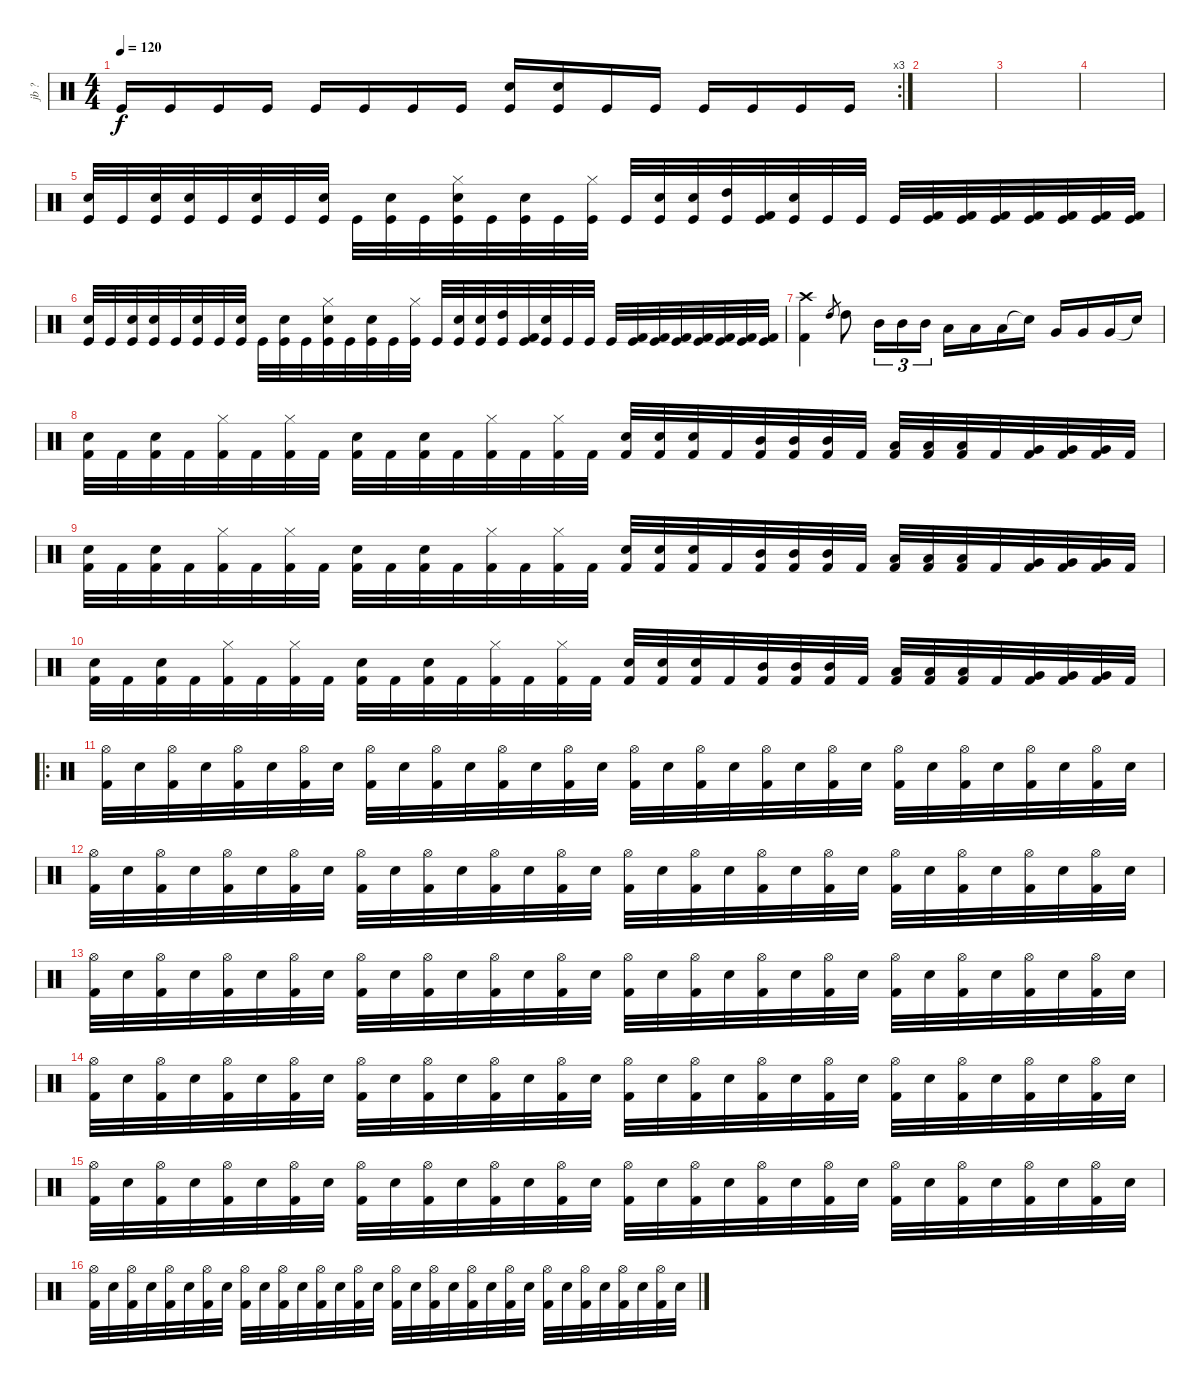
\track ("jb ?" "jb ?") {instrument percussion}
\staff {score}
\articulation defaults
\rc 3
\ts (4 4)
\tempo 120
\clef neutral
\ks c "Kick (hit)".16{dy f} "Kick (hit)".16 "Kick (hit)".16 "Kick (hit)".16 "Kick (hit)".16 "Kick (hit)".16 "Kick (hit)".16 "Kick (hit)".16
("Electric Snare (hit)" "Kick (hit)").16 ("Snare (hit) 2" "Kick (hit)").16 "Kick (hit)".16 "Kick (hit)".16 "Kick (hit)".16 "Kick (hit)".16 "Kick (hit)".16 "Kick (hit)".16 |
|
|
|
("Electric Snare (hit)" "Kick (hit)").32 "Kick (hit)".32 ("Snare (hit) 2" "Kick (hit)").32 ("Snare (hit) 2" "Kick (hit)").32 "Kick (hit)".32 ("Electric Snare (hit)" "Kick (hit)").32 "Kick (hit)".32 ("Snare (hit) 2" "Kick (hit)").32 "Kick (hit)".32 ("Electric Snare (hit)" "Kick (hit)").32 "Kick (hit)".32 ("Snare (hit) 2" "Hi-Hat (closed)" "Kick (hit)").32 "Kick (hit)".32 ("Electric Snare (hit)" "Kick (hit)").32 "Kick (hit)".32 ("Hi-Hat (closed)" "Kick (hit)").32 "Kick (hit)".32 ("Electric Snare (hit)" "Kick (hit)").32 ("Electric Snare (hit)" "Kick (hit)").32 ("High Tom (hit)" "Kick (hit)").32 ("Kick (hit) 2" "Kick (hit)").32 ("Electric Snare (hit)" "Kick (hit)").32 "Kick (hit)".32 "Kick (hit)".32 "Kick (hit)".32 ("Kick (hit) 2" "Kick (hit)").32 ("Kick (hit) 2" "Kick (hit)").32 ("Kick (hit) 2" "Kick (hit)").32 ("Kick (hit) 2" "Kick (hit)").32 ("Kick (hit) 2" "Kick (hit)").32 ("Kick (hit) 2" "Kick (hit)").32 ("Kick (hit) 2" "Kick (hit)").32 |
("Electric Snare (hit)" "Kick (hit)").32 "Kick (hit)".32 ("Snare (hit) 2" "Kick (hit)").32 ("Snare (hit) 2" "Kick (hit)").32 "Kick (hit)".32 ("Electric Snare (hit)" "Kick (hit)").32 "Kick (hit)".32 ("Snare (hit) 2" "Kick (hit)").32 "Kick (hit)".32 ("Electric Snare (hit)" "Kick (hit)").32 "Kick (hit)".32 ("Snare (hit) 2" "Hi-Hat (closed)" "Kick (hit)").32 "Kick (hit)".32 ("Electric Snare (hit)" "Kick (hit)").32 "Kick (hit)".32 ("Hi-Hat (closed)" "Kick (hit)").32 "Kick (hit)".32 ("Electric Snare (hit)" "Kick (hit)").32 ("Electric Snare (hit)" "Kick (hit)").32 ("High Tom (hit)" "Kick (hit)").32 ("Kick (hit) 2" "Kick (hit)").32 ("Electric Snare (hit)" "Kick (hit)").32 "Kick (hit)".32 "Kick (hit)".32 "Kick (hit)".32 ("Kick (hit) 2" "Kick (hit)").32 ("Kick (hit) 2" "Kick (hit)").32 ("Kick (hit) 2" "Kick (hit)").32 ("Kick (hit) 2" "Kick (hit)").32 ("Kick (hit) 2" "Kick (hit)").32 ("Kick (hit) 2" "Kick (hit)").32 ("Kick (hit) 2" "Kick (hit)").32 |
("Crash high (hit)" "Kick (hit) 2").4 "High Tom (hit)".8{gr} "High Tom (hit)".8 "Mid Tom (hit)".16{tu (3 2)} "Mid Tom (hit)".16{tu (3 2)} "Mid Tom (hit)".16{tu (3 2)} "Low Tom (hit)".16 "Low Tom (hit)".16 "Low Tom (hit)".16 "Snare (hit)"{t}.16 "Very Low Tom (hit)".16 "Very Low Tom (hit)".16 "Very Low Tom (hit)".16 "Snare (hit)"{t}.16 |
("Snare (hit) 2" "Kick (hit) 2").32 "Kick (hit) 2".32 ("Snare (hit) 2" "Kick (hit) 2").32 "Kick (hit) 2".32 ("Hi-Hat (closed)" "Kick (hit) 2").32 "Kick (hit) 2".32 ("Hi-Hat (closed)" "Kick (hit) 2").32 "Kick (hit) 2".32 ("Snare (hit) 2" "Kick (hit) 2").32 "Kick (hit) 2".32 ("Snare (hit) 2" "Kick (hit) 2").32 "Kick (hit) 2".32 ("Hi-Hat (closed)" "Kick (hit) 2").32 "Kick (hit) 2".32 ("Hi-Hat (closed)" "Kick (hit) 2").32 "Kick (hit) 2".32 ("Snare (hit) 2" "Kick (hit) 2").32 ("Snare (hit) 2" "Kick (hit) 2").32 ("Snare (hit) 2" "Kick (hit) 2").32 "Kick (hit) 2".32 ("Mid Tom (hit)" "Kick (hit) 2").32 ("Mid Tom (hit)" "Kick (hit) 2").32 ("Mid Tom (hit)" "Kick (hit) 2").32 "Kick (hit) 2".32 ("Low Tom (hit)" "Kick (hit) 2").32 ("Low Tom (hit)" "Kick (hit) 2").32 ("Low Tom (hit)" "Kick (hit) 2").32 "Kick (hit) 2".32 ("Very Low Tom (hit)" "Kick (hit) 2").32 ("Very Low Tom (hit)" "Kick (hit) 2").32 ("Very Low Tom (hit)" "Kick (hit) 2").32 "Kick (hit) 2".32 |
("Snare (hit) 2" "Kick (hit) 2").32 "Kick (hit) 2".32 ("Snare (hit) 2" "Kick (hit) 2").32 "Kick (hit) 2".32 ("Hi-Hat (closed)" "Kick (hit) 2").32 "Kick (hit) 2".32 ("Hi-Hat (closed)" "Kick (hit) 2").32 "Kick (hit) 2".32 ("Snare (hit) 2" "Kick (hit) 2").32 "Kick (hit) 2".32 ("Snare (hit) 2" "Kick (hit) 2").32 "Kick (hit) 2".32 ("Hi-Hat (closed)" "Kick (hit) 2").32 "Kick (hit) 2".32 ("Hi-Hat (closed)" "Kick (hit) 2").32 "Kick (hit) 2".32 ("Snare (hit) 2" "Kick (hit) 2").32 ("Snare (hit) 2" "Kick (hit) 2").32 ("Snare (hit) 2" "Kick (hit) 2").32 "Kick (hit) 2".32 ("Mid Tom (hit)" "Kick (hit) 2").32 ("Mid Tom (hit)" "Kick (hit) 2").32 ("Mid Tom (hit)" "Kick (hit) 2").32 "Kick (hit) 2".32 ("Low Tom (hit)" "Kick (hit) 2").32 ("Low Tom (hit)" "Kick (hit) 2").32 ("Low Tom (hit)" "Kick (hit) 2").32 "Kick (hit) 2".32 ("Very Low Tom (hit)" "Kick (hit) 2").32 ("Very Low Tom (hit)" "Kick (hit) 2").32 ("Very Low Tom (hit)" "Kick (hit) 2").32 "Kick (hit) 2".32 |
("Snare (hit) 2" "Kick (hit) 2").32 "Kick (hit) 2".32 ("Snare (hit) 2" "Kick (hit) 2").32 "Kick (hit) 2".32 ("Hi-Hat (closed)" "Kick (hit) 2").32 "Kick (hit) 2".32 ("Hi-Hat (closed)" "Kick (hit) 2").32 "Kick (hit) 2".32 ("Snare (hit) 2" "Kick (hit) 2").32 "Kick (hit) 2".32 ("Snare (hit) 2" "Kick (hit) 2").32 "Kick (hit) 2".32 ("Hi-Hat (closed)" "Kick (hit) 2").32 "Kick (hit) 2".32 ("Hi-Hat (closed)" "Kick (hit) 2").32 "Kick (hit) 2".32 ("Snare (hit) 2" "Kick (hit) 2").32 ("Snare (hit) 2" "Kick (hit) 2").32 ("Snare (hit) 2" "Kick (hit) 2").32 "Kick (hit) 2".32 ("Mid Tom (hit)" "Kick (hit) 2").32 ("Mid Tom (hit)" "Kick (hit) 2").32 ("Mid Tom (hit)" "Kick (hit) 2").32 "Kick (hit) 2".32 ("Low Tom (hit)" "Kick (hit) 2").32 ("Low Tom (hit)" "Kick (hit) 2").32 ("Low Tom (hit)" "Kick (hit) 2").32 "Kick (hit) 2".32 ("Very Low Tom (hit)" "Kick (hit) 2").32 ("Very Low Tom (hit)" "Kick (hit) 2").32 ("Very Low Tom (hit)" "Kick (hit) 2").32 "Kick (hit) 2".32 |
\ro
("Kick (hit) 2" "Hi-Hat (open)").32 "Electric Snare (hit)".32 ("Kick (hit) 2" "Hi-Hat (open)").32 "Electric Snare (hit)".32 ("Kick (hit) 2" "Hi-Hat (open)").32 "Electric Snare (hit)".32 ("Kick (hit) 2" "Hi-Hat (open)").32 "Electric Snare (hit)".32 ("Kick (hit) 2" "Hi-Hat (open)").32 "Electric Snare (hit)".32 ("Kick (hit) 2" "Hi-Hat (open)").32 "Electric Snare (hit)".32 ("Kick (hit) 2" "Hi-Hat (open)").32 "Electric Snare (hit)".32 ("Kick (hit) 2" "Hi-Hat (open)").32 "Electric Snare (hit)".32 ("Kick (hit) 2" "Hi-Hat (open)").32 "Electric Snare (hit)".32 ("Kick (hit) 2" "Hi-Hat (open)").32 "Electric Snare (hit)".32 ("Kick (hit) 2" "Hi-Hat (open)").32 "Electric Snare (hit)".32 ("Kick (hit) 2" "Hi-Hat (open)").32 "Electric Snare (hit)".32 ("Kick (hit) 2" "Hi-Hat (open)").32 "Electric Snare (hit)".32 ("Kick (hit) 2" "Hi-Hat (open)").32 "Electric Snare (hit)".32 ("Kick (hit) 2" "Hi-Hat (open)").32 "Electric Snare (hit)".32 ("Kick (hit) 2" "Hi-Hat (open)").32 "Electric Snare (hit)".32 |
("Kick (hit) 2" "Hi-Hat (open)").32 "Electric Snare (hit)".32 ("Kick (hit) 2" "Hi-Hat (open)").32 "Electric Snare (hit)".32 ("Kick (hit) 2" "Hi-Hat (open)").32 "Electric Snare (hit)".32 ("Kick (hit) 2" "Hi-Hat (open)").32 "Electric Snare (hit)".32 ("Kick (hit) 2" "Hi-Hat (open)").32 "Electric Snare (hit)".32 ("Kick (hit) 2" "Hi-Hat (open)").32 "Electric Snare (hit)".32 ("Kick (hit) 2" "Hi-Hat (open)").32 "Electric Snare (hit)".32 ("Kick (hit) 2" "Hi-Hat (open)").32 "Electric Snare (hit)".32 ("Kick (hit) 2" "Hi-Hat (open)").32 "Electric Snare (hit)".32 ("Kick (hit) 2" "Hi-Hat (open)").32 "Electric Snare (hit)".32 ("Kick (hit) 2" "Hi-Hat (open)").32 "Electric Snare (hit)".32 ("Kick (hit) 2" "Hi-Hat (open)").32 "Electric Snare (hit)".32 ("Kick (hit) 2" "Hi-Hat (open)").32 "Electric Snare (hit)".32 ("Kick (hit) 2" "Hi-Hat (open)").32 "Electric Snare (hit)".32 ("Kick (hit) 2" "Hi-Hat (open)").32 "Electric Snare (hit)".32 ("Kick (hit) 2" "Hi-Hat (open)").32 "Electric Snare (hit)".32 |
("Kick (hit) 2" "Hi-Hat (open)").32 "Electric Snare (hit)".32 ("Kick (hit) 2" "Hi-Hat (open)").32 "Electric Snare (hit)".32 ("Kick (hit) 2" "Hi-Hat (open)").32 "Electric Snare (hit)".32 ("Kick (hit) 2" "Hi-Hat (open)").32 "Electric Snare (hit)".32 ("Kick (hit) 2" "Hi-Hat (open)").32 "Electric Snare (hit)".32 ("Kick (hit) 2" "Hi-Hat (open)").32 "Electric Snare (hit)".32 ("Kick (hit) 2" "Hi-Hat (open)").32 "Electric Snare (hit)".32 ("Kick (hit) 2" "Hi-Hat (open)").32 "Electric Snare (hit)".32 ("Kick (hit) 2" "Hi-Hat (open)").32 "Electric Snare (hit)".32 ("Kick (hit) 2" "Hi-Hat (open)").32 "Electric Snare (hit)".32 ("Kick (hit) 2" "Hi-Hat (open)").32 "Electric Snare (hit)".32 ("Kick (hit) 2" "Hi-Hat (open)").32 "Electric Snare (hit)".32 ("Kick (hit) 2" "Hi-Hat (open)").32 "Electric Snare (hit)".32 ("Kick (hit) 2" "Hi-Hat (open)").32 "Electric Snare (hit)".32 ("Kick (hit) 2" "Hi-Hat (open)").32 "Electric Snare (hit)".32 ("Kick (hit) 2" "Hi-Hat (open)").32 "Electric Snare (hit)".32 |
("Kick (hit) 2" "Hi-Hat (open)").32 "Electric Snare (hit)".32 ("Kick (hit) 2" "Hi-Hat (open)").32 "Electric Snare (hit)".32 ("Kick (hit) 2" "Hi-Hat (open)").32 "Electric Snare (hit)".32 ("Kick (hit) 2" "Hi-Hat (open)").32 "Electric Snare (hit)".32 ("Kick (hit) 2" "Hi-Hat (open)").32 "Electric Snare (hit)".32 ("Kick (hit) 2" "Hi-Hat (open)").32 "Electric Snare (hit)".32 ("Kick (hit) 2" "Hi-Hat (open)").32 "Electric Snare (hit)".32 ("Kick (hit) 2" "Hi-Hat (open)").32 "Electric Snare (hit)".32 ("Kick (hit) 2" "Hi-Hat (open)").32 "Electric Snare (hit)".32 ("Kick (hit) 2" "Hi-Hat (open)").32 "Electric Snare (hit)".32 ("Kick (hit) 2" "Hi-Hat (open)").32 "Electric Snare (hit)".32 ("Kick (hit) 2" "Hi-Hat (open)").32 "Electric Snare (hit)".32 ("Kick (hit) 2" "Hi-Hat (open)").32 "Electric Snare (hit)".32 ("Kick (hit) 2" "Hi-Hat (open)").32 "Electric Snare (hit)".32 ("Kick (hit) 2" "Hi-Hat (open)").32 "Electric Snare (hit)".32 ("Kick (hit) 2" "Hi-Hat (open)").32 "Electric Snare (hit)".32 |
("Kick (hit) 2" "Hi-Hat (open)").32 "Electric Snare (hit)".32 ("Kick (hit) 2" "Hi-Hat (open)").32 "Electric Snare (hit)".32 ("Kick (hit) 2" "Hi-Hat (open)").32 "Electric Snare (hit)".32 ("Kick (hit) 2" "Hi-Hat (open)").32 "Electric Snare (hit)".32 ("Kick (hit) 2" "Hi-Hat (open)").32 "Electric Snare (hit)".32 ("Kick (hit) 2" "Hi-Hat (open)").32 "Electric Snare (hit)".32 ("Kick (hit) 2" "Hi-Hat (open)").32 "Electric Snare (hit)".32 ("Kick (hit) 2" "Hi-Hat (open)").32 "Electric Snare (hit)".32 ("Kick (hit) 2" "Hi-Hat (open)").32 "Electric Snare (hit)".32 ("Kick (hit) 2" "Hi-Hat (open)").32 "Electric Snare (hit)".32 ("Kick (hit) 2" "Hi-Hat (open)").32 "Electric Snare (hit)".32 ("Kick (hit) 2" "Hi-Hat (open)").32 "Electric Snare (hit)".32 ("Kick (hit) 2" "Hi-Hat (open)").32 "Electric Snare (hit)".32 ("Kick (hit) 2" "Hi-Hat (open)").32 "Electric Snare (hit)".32 ("Kick (hit) 2" "Hi-Hat (open)").32 "Electric Snare (hit)".32 ("Kick (hit) 2" "Hi-Hat (open)").32 "Electric Snare (hit)".32 |
("Kick (hit) 2" "Hi-Hat (open)").32 "Electric Snare (hit)".32 ("Kick (hit) 2" "Hi-Hat (open)").32 "Electric Snare (hit)".32 ("Kick (hit) 2" "Hi-Hat (open)").32 "Electric Snare (hit)".32 ("Kick (hit) 2" "Hi-Hat (open)").32 "Electric Snare (hit)".32 ("Kick (hit) 2" "Hi-Hat (open)").32 "Electric Snare (hit)".32 ("Kick (hit) 2" "Hi-Hat (open)").32 "Electric Snare (hit)".32 ("Kick (hit) 2" "Hi-Hat (open)").32 "Electric Snare (hit)".32 ("Kick (hit) 2" "Hi-Hat (open)").32 "Electric Snare (hit)".32 ("Kick (hit) 2" "Hi-Hat (open)").32 "Electric Snare (hit)".32 ("Kick (hit) 2" "Hi-Hat (open)").32 "Electric Snare (hit)".32 ("Kick (hit) 2" "Hi-Hat (open)").32 "Electric Snare (hit)".32 ("Kick (hit) 2" "Hi-Hat (open)").32 "Electric Snare (hit)".32 ("Kick (hit) 2" "Hi-Hat (open)").32 "Electric Snare (hit)".32 ("Kick (hit) 2" "Hi-Hat (open)").32 "Electric Snare (hit)".32 ("Kick (hit) 2" "Hi-Hat (open)").32 "Electric Snare (hit)".32 ("Kick (hit) 2" "Hi-Hat (open)").32 "Electric Snare (hit)".32
